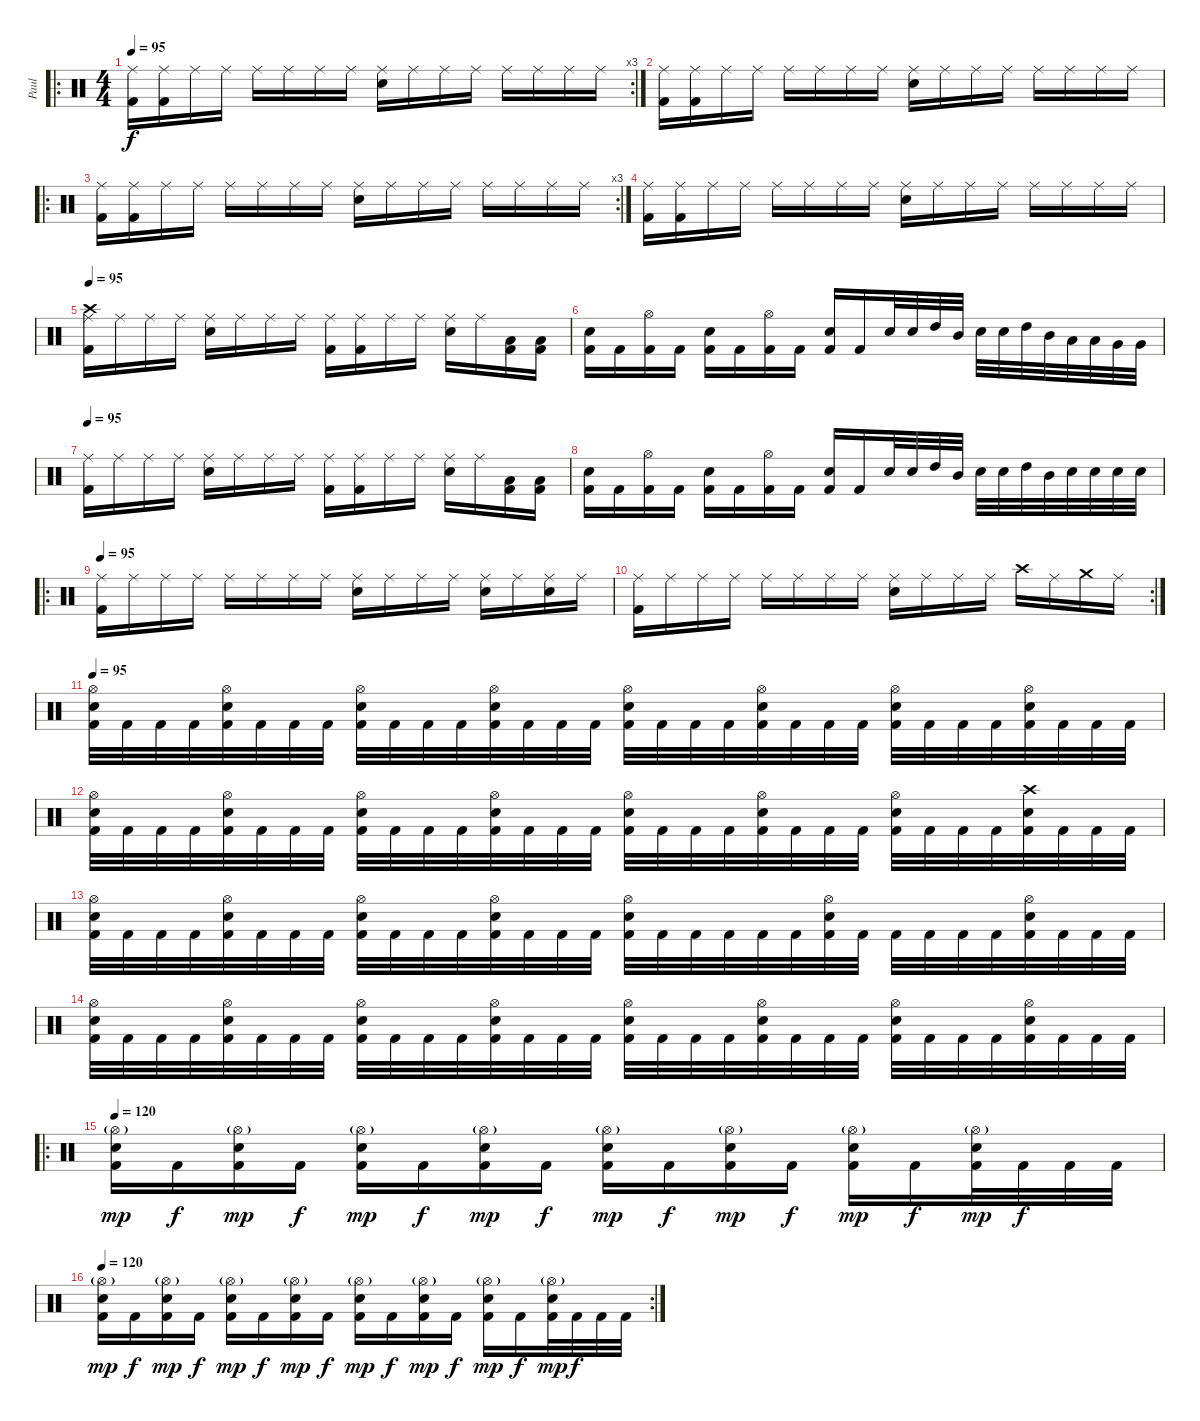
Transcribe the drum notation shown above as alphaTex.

\track ("Paul" "Paul") {instrument percussion}
\staff {score}
\articulation defaults
\ro
\rc 3
\ts (4 4)
\tempo 95
\clef neutral
\ks c
("Ride (middle)" "Kick (hit) 2").16{dy f} ("Ride (middle)" "Kick (hit) 2").16 "Ride (middle)".16 "Ride (middle)".16 "Ride (middle)".16 "Ride (middle)".16 "Ride (middle)".16 "Ride (middle)".16 ("Electric Snare (hit)" "Ride (middle)").16 "Ride (middle)".16 "Ride (middle)".16 "Ride (middle)".16 "Ride (middle)".16 "Ride (middle)".16 "Ride (middle)".16 "Ride (middle)".16 |
("Ride (middle)" "Kick (hit) 2").16 ("Ride (middle)" "Kick (hit) 2").16 "Ride (middle)".16 "Ride (middle)".16 "Ride (middle)".16 "Ride (middle)".16 "Ride (middle)".16 "Ride (middle)".16 ("Electric Snare (hit)" "Ride (middle)").16 "Ride (middle)".16 "Ride (middle)".16 "Ride (middle)".16 "Ride (middle)".16 "Ride (middle)".16 "Ride (middle)".16 "Ride (middle)".16 |
\ro
\rc 3
("Ride (middle)" "Kick (hit) 2").16 ("Ride (middle)" "Kick (hit) 2").16 "Ride (middle)".16 "Ride (middle)".16 "Ride (middle)".16 "Ride (middle)".16 "Ride (middle)".16 "Ride (middle)".16 ("Electric Snare (hit)" "Ride (middle)").16 "Ride (middle)".16 "Ride (middle)".16 "Ride (middle)".16 "Ride (middle)".16 "Ride (middle)".16 "Ride (middle)".16 "Ride (middle)".16 |
("Ride (middle)" "Kick (hit) 2").16 ("Ride (middle)" "Kick (hit) 2").16 "Ride (middle)".16 "Ride (middle)".16 "Ride (middle)".16 "Ride (middle)".16 "Ride (middle)".16 "Ride (middle)".16 ("Electric Snare (hit)" "Ride (middle)").16 "Ride (middle)".16 "Ride (middle)".16 "Ride (middle)".16 "Ride (middle)".16 "Ride (middle)".16 "Ride (middle)".16 "Ride (middle)".16 |
\tempo 95
("Ride (middle)" "Kick (hit) 2" "Crash high (hit)").16{volume 15} "Ride (middle)".16 "Ride (middle)".16 "Ride (middle)".16 ("Ride (middle)" "Electric Snare (hit)").16 "Ride (middle)".16 "Ride (middle)".16 "Ride (middle)".16 ("Ride (middle)" "Kick (hit) 2").16 ("Ride (middle)" "Kick (hit) 2").16 "Ride (middle)".16 "Ride (middle)".16 ("Ride (middle)" "Electric Snare (hit)").16 "Ride (middle)".16 ("Low Floor Tom (hit)" "Kick (hit) 2").16 ("Low Floor Tom (hit)" "Kick (hit) 2").16 |
("Electric Snare (hit)" "Kick (hit) 2").16 "Kick (hit) 2".16 ("Hi-Hat (open)" "Kick (hit) 2").16 "Kick (hit) 2".16 ("Electric Snare (hit)" "Kick (hit) 2").16 "Kick (hit) 2".16 ("Hi-Hat (open)" "Kick (hit) 2").16 "Kick (hit) 2".16 ("Electric Snare (hit)" "Kick (hit) 2").16 "Kick (hit) 2".16 "Electric Snare (hit)".32 "Electric Snare (hit)".32 "High Tom (hit)".32 "Mid Tom (hit)".32 "Electric Snare (hit)".32 "Electric Snare (hit)".32 "High Tom (hit)".32 "Mid Tom (hit)".32 "Low Tom (hit)".32 "Low Tom (hit)".32 "Very Low Tom (hit)".32 "Very Low Tom (hit)".32 |
\tempo 95
("Ride (middle)" "Kick (hit) 2").16{volume 15} "Ride (middle)".16 "Ride (middle)".16 "Ride (middle)".16 ("Ride (middle)" "Electric Snare (hit)").16 "Ride (middle)".16 "Ride (middle)".16 "Ride (middle)".16 ("Ride (middle)" "Kick (hit) 2").16 ("Ride (middle)" "Kick (hit) 2").16 "Ride (middle)".16 "Ride (middle)".16 ("Ride (middle)" "Electric Snare (hit)").16 "Ride (middle)".16 ("Low Floor Tom (hit)" "Kick (hit) 2").16 ("Low Floor Tom (hit)" "Kick (hit) 2").16 |
("Electric Snare (hit)" "Kick (hit) 2").16 "Kick (hit) 2".16 ("Hi-Hat (open)" "Kick (hit) 2").16 "Kick (hit) 2".16 ("Electric Snare (hit)" "Kick (hit) 2").16 "Kick (hit) 2".16 ("Hi-Hat (open)" "Kick (hit) 2").16 "Kick (hit) 2".16 ("Electric Snare (hit)" "Kick (hit) 2").16 "Kick (hit) 2".16 "Electric Snare (hit)".32 "Electric Snare (hit)".32 "High Tom (hit)".32 "Mid Tom (hit)".32 "Electric Snare (hit)".32 "Electric Snare (hit)".32 "High Tom (hit)".32 "Mid Tom (hit)".32 "Electric Snare (hit)".32 "Electric Snare (hit)".32 "Electric Snare (hit)".32 "Electric Snare (hit)".32 |
\ro
\tempo 95
("Ride (middle)" "Kick (hit) 2").16 "Ride (middle)".16 "Ride (middle)".16 "Ride (middle)".16 "Ride (middle)".16 "Ride (middle)".16 "Ride (middle)".16 "Ride (middle)".16 ("Ride (middle)" "Electric Snare (hit)").16 "Ride (middle)".16 "Ride (middle)".16 "Ride (middle)".16 ("Ride (middle)" "Electric Snare (hit)").16 "Ride (middle)".16 ("Ride (middle)" "Electric Snare (hit)").16 "Ride (middle)".16 |
\rc 2
("Ride (middle)" "Kick (hit) 2").16 "Ride (middle)".16 "Ride (middle)".16 "Ride (middle)".16 "Ride (middle)".16 "Ride (middle)".16 "Ride (middle)".16 "Ride (middle)".16 ("Ride (middle)" "Electric Snare (hit)").16 "Ride (middle)".16 "Ride (middle)".16 "Ride (middle)".16 "Crash high (hit)".16 "Ride (middle)".16 "Crash medium (hit)".16 "Ride (middle)".16 |
\tempo 95
("Hi-Hat (open)" "Electric Snare (hit)" "Kick (hit) 2").32 "Kick (hit) 2".32 "Kick (hit) 2".32 "Kick (hit) 2".32 ("Hi-Hat (open)" "Electric Snare (hit)" "Kick (hit) 2").32 "Kick (hit) 2".32 "Kick (hit) 2".32 "Kick (hit) 2".32 ("Hi-Hat (open)" "Electric Snare (hit)" "Kick (hit) 2").32 "Kick (hit) 2".32 "Kick (hit) 2".32 "Kick (hit) 2".32 ("Hi-Hat (open)" "Electric Snare (hit)" "Kick (hit) 2").32 "Kick (hit) 2".32 "Kick (hit) 2".32 "Kick (hit) 2".32 ("Hi-Hat (open)" "Electric Snare (hit)" "Kick (hit) 2").32 "Kick (hit) 2".32 "Kick (hit) 2".32 "Kick (hit) 2".32 ("Hi-Hat (open)" "Electric Snare (hit)" "Kick (hit) 2").32 "Kick (hit) 2".32 "Kick (hit) 2".32 "Kick (hit) 2".32 ("Hi-Hat (open)" "Electric Snare (hit)" "Kick (hit) 2").32 "Kick (hit) 2".32 "Kick (hit) 2".32 "Kick (hit) 2".32 ("Hi-Hat (open)" "Electric Snare (hit)" "Kick (hit) 2").32 "Kick (hit) 2".32 "Kick (hit) 2".32 "Kick (hit) 2".32 |
("Hi-Hat (open)" "Electric Snare (hit)" "Kick (hit) 2").32 "Kick (hit) 2".32 "Kick (hit) 2".32 "Kick (hit) 2".32 ("Hi-Hat (open)" "Electric Snare (hit)" "Kick (hit) 2").32 "Kick (hit) 2".32 "Kick (hit) 2".32 "Kick (hit) 2".32 ("Hi-Hat (open)" "Electric Snare (hit)" "Kick (hit) 2").32 "Kick (hit) 2".32 "Kick (hit) 2".32 "Kick (hit) 2".32 ("Hi-Hat (open)" "Electric Snare (hit)" "Kick (hit) 2").32 "Kick (hit) 2".32 "Kick (hit) 2".32 "Kick (hit) 2".32 ("Hi-Hat (open)" "Electric Snare (hit)" "Kick (hit) 2").32 "Kick (hit) 2".32 "Kick (hit) 2".32 "Kick (hit) 2".32 ("Hi-Hat (open)" "Electric Snare (hit)" "Kick (hit) 2").32 "Kick (hit) 2".32 "Kick (hit) 2".32 "Kick (hit) 2".32 ("Hi-Hat (open)" "Electric Snare (hit)" "Kick (hit) 2").32 "Kick (hit) 2".32 "Kick (hit) 2".32 "Kick (hit) 2".32 ("Crash high (hit)" "Electric Snare (hit)" "Kick (hit) 2").32 "Kick (hit) 2".32 "Kick (hit) 2".32 "Kick (hit) 2".32 |
("Hi-Hat (open)" "Electric Snare (hit)" "Kick (hit) 2").32 "Kick (hit) 2".32 "Kick (hit) 2".32 "Kick (hit) 2".32 ("Hi-Hat (open)" "Electric Snare (hit)" "Kick (hit) 2").32 "Kick (hit) 2".32 "Kick (hit) 2".32 "Kick (hit) 2".32 ("Hi-Hat (open)" "Electric Snare (hit)" "Kick (hit) 2").32 "Kick (hit) 2".32 "Kick (hit) 2".32 "Kick (hit) 2".32 ("Hi-Hat (open)" "Electric Snare (hit)" "Kick (hit) 2").32 "Kick (hit) 2".32 "Kick (hit) 2".32 "Kick (hit) 2".32 ("Hi-Hat (open)" "Electric Snare (hit)" "Kick (hit) 2").32 "Kick (hit) 2".32 "Kick (hit) 2".32 "Kick (hit) 2".32 "Kick (hit) 2".32 "Kick (hit) 2".32 ("Hi-Hat (open)" "Electric Snare (hit)" "Kick (hit) 2").32 "Kick (hit) 2".32 "Kick (hit) 2".32 "Kick (hit) 2".32 "Kick (hit) 2".32 "Kick (hit) 2".32 ("Hi-Hat (open)" "Electric Snare (hit)" "Kick (hit) 2").32 "Kick (hit) 2".32 "Kick (hit) 2".32 "Kick (hit) 2".32 |
("Hi-Hat (open)" "Electric Snare (hit)" "Kick (hit) 2").32 "Kick (hit) 2".32 "Kick (hit) 2".32 "Kick (hit) 2".32 ("Hi-Hat (open)" "Electric Snare (hit)" "Kick (hit) 2").32 "Kick (hit) 2".32 "Kick (hit) 2".32 "Kick (hit) 2".32 ("Hi-Hat (open)" "Electric Snare (hit)" "Kick (hit) 2").32 "Kick (hit) 2".32 "Kick (hit) 2".32 "Kick (hit) 2".32 ("Hi-Hat (open)" "Electric Snare (hit)" "Kick (hit) 2").32 "Kick (hit) 2".32 "Kick (hit) 2".32 "Kick (hit) 2".32 ("Hi-Hat (open)" "Electric Snare (hit)" "Kick (hit) 2").32 "Kick (hit) 2".32 "Kick (hit) 2".32 "Kick (hit) 2".32 ("Hi-Hat (open)" "Electric Snare (hit)" "Kick (hit) 2").32 "Kick (hit) 2".32 "Kick (hit) 2".32 "Kick (hit) 2".32 ("Hi-Hat (open)" "Electric Snare (hit)" "Kick (hit) 2").32 "Kick (hit) 2".32 "Kick (hit) 2".32 "Kick (hit) 2".32 ("Hi-Hat (open)" "Electric Snare (hit)" "Kick (hit) 2").32 "Kick (hit) 2".32 "Kick (hit) 2".32 "Kick (hit) 2".32 |
\ro
\tempo 120
("Hi-Hat (open)"{g} "Electric Snare (hit)" "Kick (hit) 2").16{dy mp} "Kick (hit) 2".16{dy f} ("Hi-Hat (open)"{g} "Electric Snare (hit)" "Kick (hit) 2").16{dy mp} "Kick (hit) 2".16{dy f} ("Hi-Hat (open)"{g} "Electric Snare (hit)" "Kick (hit) 2").16{dy mp} "Kick (hit) 2".16{dy f} ("Hi-Hat (open)"{g} "Electric Snare (hit)" "Kick (hit) 2").16{dy mp} "Kick (hit) 2".16{dy f} ("Hi-Hat (open)"{g} "Electric Snare (hit)" "Kick (hit) 2").16{dy mp} "Kick (hit) 2".16{dy f} ("Hi-Hat (open)"{g} "Electric Snare (hit)" "Kick (hit) 2").16{dy mp} "Kick (hit) 2".16{dy f} ("Hi-Hat (open)"{g} "Electric Snare (hit)" "Kick (hit) 2").16{dy mp} "Kick (hit) 2".16{dy f} ("Hi-Hat (open)"{g} "Electric Snare (hit)" "Kick (hit) 2").32{dy mp} "Kick (hit) 2".32{dy f} "Kick (hit) 2".32 "Kick (hit) 2".32 |
\rc 2
\tempo 120
("Hi-Hat (open)"{g} "Electric Snare (hit)" "Kick (hit) 2").16{dy mp} "Kick (hit) 2".16{dy f} ("Hi-Hat (open)"{g} "Electric Snare (hit)" "Kick (hit) 2").16{dy mp} "Kick (hit) 2".16{dy f} ("Hi-Hat (open)"{g} "Electric Snare (hit)" "Kick (hit) 2").16{dy mp} "Kick (hit) 2".16{dy f} ("Hi-Hat (open)"{g} "Electric Snare (hit)" "Kick (hit) 2").16{dy mp} "Kick (hit) 2".16{dy f} ("Hi-Hat (open)"{g} "Electric Snare (hit)" "Kick (hit) 2").16{dy mp} "Kick (hit) 2".16{dy f} ("Hi-Hat (open)"{g} "Electric Snare (hit)" "Kick (hit) 2").16{dy mp} "Kick (hit) 2".16{dy f} ("Hi-Hat (open)"{g} "Electric Snare (hit)" "Kick (hit) 2").16{dy mp} "Kick (hit) 2".16{dy f} ("Hi-Hat (open)"{g} "Electric Snare (hit)" "Kick (hit) 2").32{dy mp} "Kick (hit) 2".32{dy f} "Kick (hit) 2".32 "Kick (hit) 2".32
